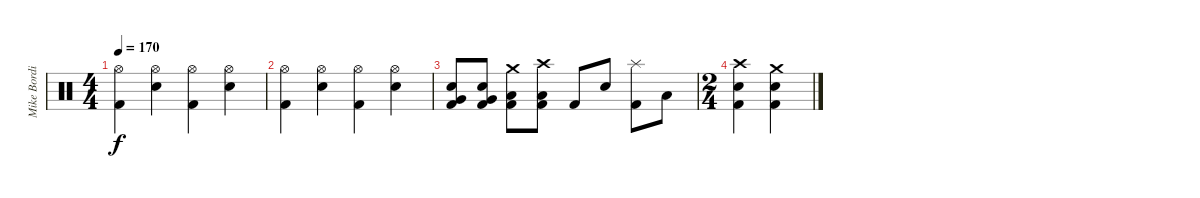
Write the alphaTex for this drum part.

\track ("Mike Bordin" "Mike Bordi") {instrument percussion}
\staff {score}
\articulation defaults
\ts (4 4)
\tempo 170
\clef neutral
\ks c
("Hi-Hat (open)" "Kick (hit) 2").4{dy f} ("Hi-Hat (open)" "Electric Snare (hit)").4 ("Hi-Hat (open)" "Kick (hit) 2").4 ("Hi-Hat (open)" "Electric Snare (hit)").4 |
("Hi-Hat (open)" "Kick (hit) 2").4 ("Hi-Hat (open)" "Electric Snare (hit)").4 ("Hi-Hat (open)" "Kick (hit) 2").4 ("Hi-Hat (open)" "Electric Snare (hit)").4 |
("Electric Snare (hit)" "Very Low Tom (hit)" "Kick (hit) 2").8 ("Electric Snare (hit)" "Very Low Tom (hit)" "Kick (hit) 2").8 ("Crash medium (hit)" "Low Floor Tom (hit)" "Kick (hit) 2").8 ("Crash high (hit)" "Low Floor Tom (hit)" "Kick (hit) 2").8 "Kick (hit) 2".8 "Electric Snare (hit)".8 ("Splash (hit)" "Kick (hit) 2").8 "Low Floor Tom (hit)".8 |
\ts (2 4)
("Crash high (hit)" "Electric Snare (hit)" "Kick (hit) 2").4 ("Crash medium (hit)" "Electric Snare (hit)" "Kick (hit) 2").4
